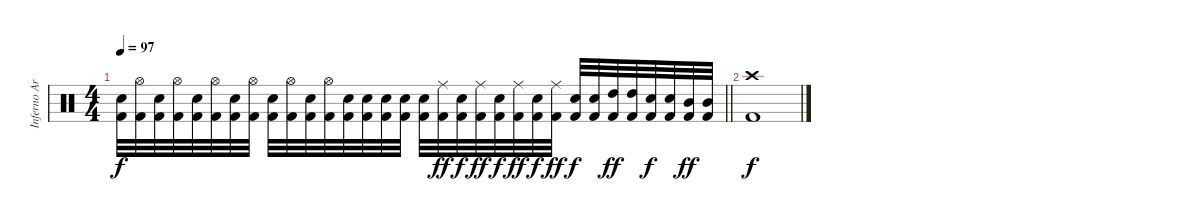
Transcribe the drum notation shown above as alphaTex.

\track ("Inferno Art" "Inferno Ar") {instrument percussion bank 7}
\staff {score}
\articulation defaults
\ts (4 4)
\tempo 97
\clef neutral
\barLineRight lightlight
\ks c
("Electric Snare (hit)" "Kick (hit) 2").32{dy f} ("Hi-Hat (open)" "Kick (hit) 2").32 ("Electric Snare (hit)" "Kick (hit) 2").32 ("Hi-Hat (open)" "Kick (hit) 2").32 ("Electric Snare (hit)" "Kick (hit) 2").32 ("Hi-Hat (open)" "Kick (hit) 2").32 ("Electric Snare (hit)" "Kick (hit) 2").32 ("Hi-Hat (open)" "Kick (hit) 2").32 ("Electric Snare (hit)" "Kick (hit) 2").32 ("Hi-Hat (open)" "Kick (hit) 2").32 ("Electric Snare (hit)" "Kick (hit) 2").32 ("Hi-Hat (open)" "Kick (hit) 2").32 ("Electric Snare (hit)" "Kick (hit) 2").32 ("Electric Snare (hit)" "Kick (hit) 2").32 ("Electric Snare (hit)" "Kick (hit) 2").32 ("Electric Snare (hit)" "Kick (hit) 2").32 ("Electric Snare (hit)" "Kick (hit) 2").32 ("Ride (middle)" "Kick (hit) 2").32{dy ff} ("Electric Snare (hit)" "Kick (hit) 2").32{dy f} ("Ride (middle)" "Kick (hit) 2").32{dy ff} ("Electric Snare (hit)" "Kick (hit) 2").32{dy f} ("Ride (middle)" "Kick (hit) 2").32{dy ff} ("Electric Snare (hit)" "Kick (hit) 2").32{dy f} ("Ride (middle)" "Kick (hit) 2").32{dy ff} ("Electric Snare (hit)" "Kick (hit) 2").32{dy f} ("Electric Snare (hit)" "Kick (hit) 2").32 ("High Tom (hit)" "Kick (hit) 2").32{dy ff} ("High Tom (hit)" "Kick (hit) 2").32 ("Electric Snare (hit)" "Kick (hit) 2").32{dy f} ("Electric Snare (hit)" "Kick (hit) 2").32 ("Mid Tom (hit)" "Kick (hit) 2").32{dy ff} ("Mid Tom (hit)" "Kick (hit) 2").32 |
("Crash high (hit)" "Kick (hit) 2").1{dy f}
